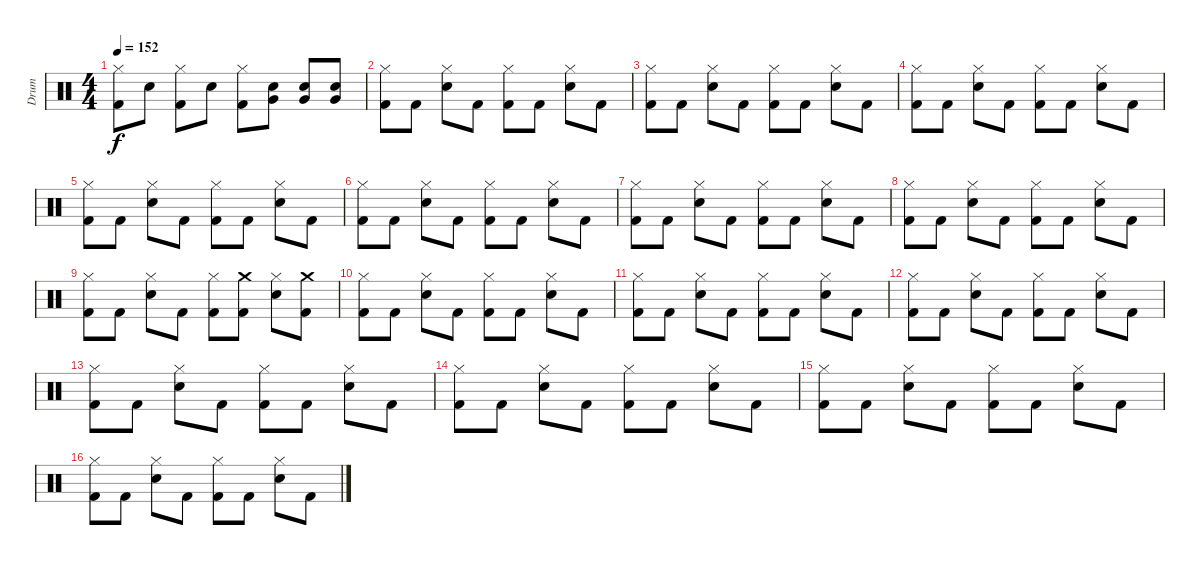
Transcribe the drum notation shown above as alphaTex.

\track ("Drum" "Drum") {instrument percussion}
\staff {score}
\articulation defaults
\ts (4 4)
\tempo 152
\clef neutral
\ks c
("Hi-Hat (closed)" "Kick (hit) 2").8{dy f} "Electric Snare (hit)".8 ("Hi-Hat (closed)" "Kick (hit) 2").8 "Electric Snare (hit)".8 ("Hi-Hat (closed)" "Kick (hit) 2").8 ("Very Low Tom (hit)" "Electric Snare (hit)").8 ("Very Low Tom (hit)" "Electric Snare (hit)").8 ("Very Low Tom (hit)" "Electric Snare (hit)").8 |
("Hi-Hat (closed)" "Kick (hit) 2").8 "Kick (hit) 2".8 ("Hi-Hat (closed)" "Electric Snare (hit)").8 "Kick (hit) 2".8 ("Hi-Hat (closed)" "Kick (hit) 2").8 "Kick (hit) 2".8 ("Hi-Hat (closed)" "Electric Snare (hit)").8 "Kick (hit) 2".8 |
("Hi-Hat (closed)" "Kick (hit) 2").8 "Kick (hit) 2".8 ("Hi-Hat (closed)" "Electric Snare (hit)").8 "Kick (hit) 2".8 ("Hi-Hat (closed)" "Kick (hit) 2").8 "Kick (hit) 2".8 ("Hi-Hat (closed)" "Electric Snare (hit)").8 "Kick (hit) 2".8 |
("Hi-Hat (closed)" "Kick (hit) 2").8 "Kick (hit) 2".8 ("Hi-Hat (closed)" "Electric Snare (hit)").8 "Kick (hit) 2".8 ("Hi-Hat (closed)" "Kick (hit) 2").8 "Kick (hit) 2".8 ("Hi-Hat (closed)" "Electric Snare (hit)").8 "Kick (hit) 2".8 |
("Hi-Hat (closed)" "Kick (hit) 2").8 "Kick (hit) 2".8 ("Hi-Hat (closed)" "Electric Snare (hit)").8 "Kick (hit) 2".8 ("Hi-Hat (closed)" "Kick (hit) 2").8 "Kick (hit) 2".8 ("Hi-Hat (closed)" "Electric Snare (hit)").8 "Kick (hit) 2".8 |
("Hi-Hat (closed)" "Kick (hit) 2").8 "Kick (hit) 2".8 ("Hi-Hat (closed)" "Electric Snare (hit)").8 "Kick (hit) 2".8 ("Hi-Hat (closed)" "Kick (hit) 2").8 "Kick (hit) 2".8 ("Hi-Hat (closed)" "Electric Snare (hit)").8 "Kick (hit) 2".8 |
("Hi-Hat (closed)" "Kick (hit) 2").8 "Kick (hit) 2".8 ("Hi-Hat (closed)" "Electric Snare (hit)").8 "Kick (hit) 2".8 ("Hi-Hat (closed)" "Kick (hit) 2").8 "Kick (hit) 2".8 ("Hi-Hat (closed)" "Electric Snare (hit)").8 "Kick (hit) 2".8 |
("Hi-Hat (closed)" "Kick (hit) 2").8 "Kick (hit) 2".8 ("Hi-Hat (closed)" "Electric Snare (hit)").8 "Kick (hit) 2".8 ("Hi-Hat (closed)" "Kick (hit) 2").8 "Kick (hit) 2".8 ("Hi-Hat (closed)" "Electric Snare (hit)").8 "Kick (hit) 2".8 |
("Hi-Hat (closed)" "Kick (hit) 2").8 "Kick (hit) 2".8 ("Hi-Hat (closed)" "Electric Snare (hit)").8 "Kick (hit) 2".8 ("Hi-Hat (closed)" "Kick (hit) 2").8 ("Crash medium (hit)" "Kick (hit) 2").8 ("Hi-Hat (closed)" "Electric Snare (hit)").8 ("Crash medium (hit)" "Kick (hit) 2").8 |
("Hi-Hat (closed)" "Kick (hit) 2").8 "Kick (hit) 2".8 ("Hi-Hat (closed)" "Electric Snare (hit)").8 "Kick (hit) 2".8 ("Hi-Hat (closed)" "Kick (hit) 2").8 "Kick (hit) 2".8 ("Hi-Hat (closed)" "Electric Snare (hit)").8 "Kick (hit) 2".8 |
("Hi-Hat (closed)" "Kick (hit) 2").8 "Kick (hit) 2".8 ("Hi-Hat (closed)" "Electric Snare (hit)").8 "Kick (hit) 2".8 ("Hi-Hat (closed)" "Kick (hit) 2").8 "Kick (hit) 2".8 ("Hi-Hat (closed)" "Electric Snare (hit)").8 "Kick (hit) 2".8 |
("Hi-Hat (closed)" "Kick (hit) 2").8 "Kick (hit) 2".8 ("Hi-Hat (closed)" "Electric Snare (hit)").8 "Kick (hit) 2".8 ("Hi-Hat (closed)" "Kick (hit) 2").8 "Kick (hit) 2".8 ("Hi-Hat (closed)" "Electric Snare (hit)").8 "Kick (hit) 2".8 |
("Hi-Hat (closed)" "Kick (hit) 2").8 "Kick (hit) 2".8 ("Hi-Hat (closed)" "Electric Snare (hit)").8 "Kick (hit) 2".8 ("Hi-Hat (closed)" "Kick (hit) 2").8 "Kick (hit) 2".8 ("Hi-Hat (closed)" "Electric Snare (hit)").8 "Kick (hit) 2".8 |
("Hi-Hat (closed)" "Kick (hit) 2").8 "Kick (hit) 2".8 ("Hi-Hat (closed)" "Electric Snare (hit)").8 "Kick (hit) 2".8 ("Hi-Hat (closed)" "Kick (hit) 2").8 "Kick (hit) 2".8 ("Hi-Hat (closed)" "Electric Snare (hit)").8 "Kick (hit) 2".8 |
("Hi-Hat (closed)" "Kick (hit) 2").8 "Kick (hit) 2".8 ("Hi-Hat (closed)" "Electric Snare (hit)").8 "Kick (hit) 2".8 ("Hi-Hat (closed)" "Kick (hit) 2").8 "Kick (hit) 2".8 ("Hi-Hat (closed)" "Electric Snare (hit)").8 "Kick (hit) 2".8 |
("Hi-Hat (closed)" "Kick (hit) 2").8 "Kick (hit) 2".8 ("Hi-Hat (closed)" "Electric Snare (hit)").8 "Kick (hit) 2".8 ("Hi-Hat (closed)" "Kick (hit) 2").8 "Kick (hit) 2".8 ("Hi-Hat (closed)" "Electric Snare (hit)").8 "Kick (hit) 2".8
